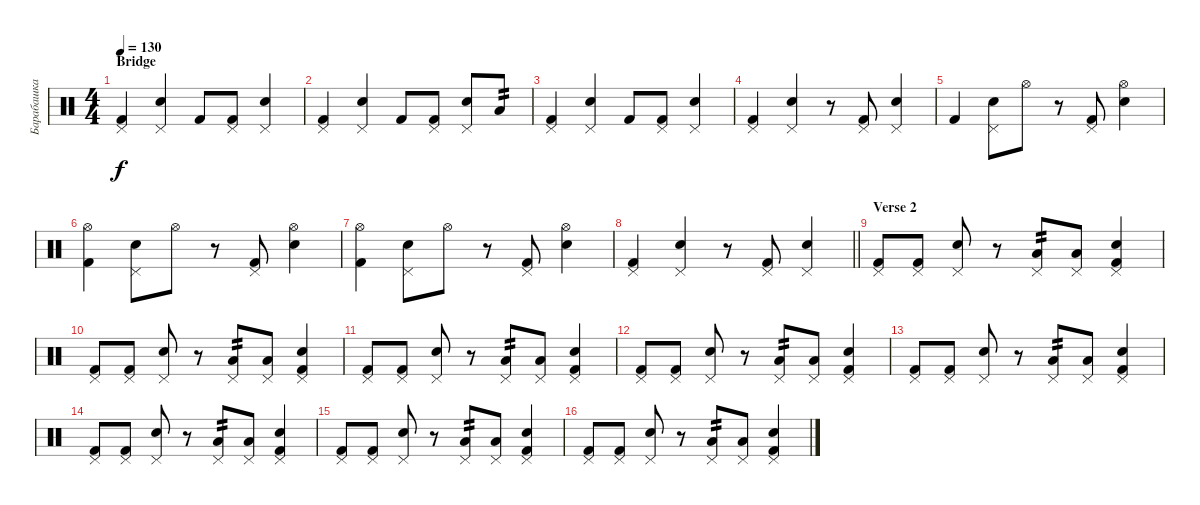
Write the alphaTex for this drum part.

\track ("Барабашка" "Барабашка") {instrument percussion}
\staff {score}
\articulation defaults
\ts (4 4)
\section ("" "Bridge")
\tempo 130
\clef neutral
\ks c
("Pedal Hi-Hat (hit)" "Kick (hit) 2").4{dy f} ("Snare (hit) 2" "Pedal Hi-Hat (hit)").4 "Kick (hit) 2".8 ("Pedal Hi-Hat (hit)" "Kick (hit) 2").8 ("Snare (hit) 2" "Pedal Hi-Hat (hit)").4 |
("Pedal Hi-Hat (hit)" "Kick (hit) 2").4 ("Snare (hit) 2" "Pedal Hi-Hat (hit)").4 "Kick (hit) 2".8 ("Pedal Hi-Hat (hit)" "Kick (hit) 2").8 ("Snare (hit) 2" "Pedal Hi-Hat (hit)").8 "Low Tom (hit)".8{tp 2} |
("Pedal Hi-Hat (hit)" "Kick (hit) 2").4 ("Snare (hit) 2" "Pedal Hi-Hat (hit)").4 "Kick (hit) 2".8 ("Pedal Hi-Hat (hit)" "Kick (hit) 2").8 ("Snare (hit) 2" "Pedal Hi-Hat (hit)").4 |
("Pedal Hi-Hat (hit)" "Kick (hit) 2").4 ("Snare (hit) 2" "Pedal Hi-Hat (hit)").4 r.8 ("Pedal Hi-Hat (hit)" "Kick (hit) 2").8 ("Snare (hit) 2" "Pedal Hi-Hat (hit)").4 |
"Kick (hit) 2".4 ("Snare (hit) 2" "Pedal Hi-Hat (hit)").8 "Hi-Hat (open)".8 r.8 ("Pedal Hi-Hat (hit)" "Kick (hit) 2").8 ("Snare (hit) 2" "Hi-Hat (open)").4 |
("Hi-Hat (open)" "Kick (hit) 2").4 ("Snare (hit) 2" "Pedal Hi-Hat (hit)").8 "Hi-Hat (open)".8 r.8 ("Pedal Hi-Hat (hit)" "Kick (hit) 2").8 ("Snare (hit) 2" "Hi-Hat (open)").4 |
("Hi-Hat (open)" "Kick (hit) 2").4 ("Snare (hit) 2" "Pedal Hi-Hat (hit)").8 "Hi-Hat (open)".8 r.8 ("Pedal Hi-Hat (hit)" "Kick (hit) 2").8 ("Snare (hit) 2" "Hi-Hat (open)").4 |
\barLineRight lightlight
("Pedal Hi-Hat (hit)" "Kick (hit) 2").4 ("Snare (hit) 2" "Pedal Hi-Hat (hit)").4 r.8 ("Pedal Hi-Hat (hit)" "Kick (hit) 2").8 ("Snare (hit) 2" "Pedal Hi-Hat (hit)").4 |
\section ("" "Verse 2")
("Pedal Hi-Hat (hit)" "Kick (hit) 2").8{volume 16} ("Pedal Hi-Hat (hit)" "Kick (hit) 2").8 ("Snare (hit) 2" "Pedal Hi-Hat (hit)").8 r.8 ("Low Tom (hit)" "Pedal Hi-Hat (hit)").8{tp 2} ("Low Tom (hit)" "Pedal Hi-Hat (hit)").8 ("Snare (hit) 2" "Pedal Hi-Hat (hit)" "Kick (hit) 2").4 |
("Pedal Hi-Hat (hit)" "Kick (hit) 2").8 ("Pedal Hi-Hat (hit)" "Kick (hit) 2").8 ("Snare (hit) 2" "Pedal Hi-Hat (hit)").8 r.8 ("Low Tom (hit)" "Pedal Hi-Hat (hit)").8{tp 2} ("Low Tom (hit)" "Pedal Hi-Hat (hit)").8 ("Snare (hit) 2" "Pedal Hi-Hat (hit)" "Kick (hit) 2").4 |
("Pedal Hi-Hat (hit)" "Kick (hit) 2").8 ("Pedal Hi-Hat (hit)" "Kick (hit) 2").8 ("Snare (hit) 2" "Pedal Hi-Hat (hit)").8 r.8 ("Low Tom (hit)" "Pedal Hi-Hat (hit)").8{tp 2} ("Low Tom (hit)" "Pedal Hi-Hat (hit)").8 ("Snare (hit) 2" "Pedal Hi-Hat (hit)" "Kick (hit) 2").4 |
("Pedal Hi-Hat (hit)" "Kick (hit) 2").8 ("Pedal Hi-Hat (hit)" "Kick (hit) 2").8 ("Snare (hit) 2" "Pedal Hi-Hat (hit)").8 r.8 ("Low Tom (hit)" "Pedal Hi-Hat (hit)").8{tp 2} ("Low Tom (hit)" "Pedal Hi-Hat (hit)").8 ("Snare (hit) 2" "Pedal Hi-Hat (hit)" "Kick (hit) 2").4 |
("Pedal Hi-Hat (hit)" "Kick (hit) 2").8 ("Pedal Hi-Hat (hit)" "Kick (hit) 2").8 ("Snare (hit) 2" "Pedal Hi-Hat (hit)").8 r.8 ("Low Tom (hit)" "Pedal Hi-Hat (hit)").8{tp 2} ("Low Tom (hit)" "Pedal Hi-Hat (hit)").8 ("Snare (hit) 2" "Pedal Hi-Hat (hit)" "Kick (hit) 2").4 |
("Pedal Hi-Hat (hit)" "Kick (hit) 2").8 ("Pedal Hi-Hat (hit)" "Kick (hit) 2").8 ("Snare (hit) 2" "Pedal Hi-Hat (hit)").8 r.8 ("Low Tom (hit)" "Pedal Hi-Hat (hit)").8{tp 2} ("Low Tom (hit)" "Pedal Hi-Hat (hit)").8 ("Snare (hit) 2" "Pedal Hi-Hat (hit)" "Kick (hit) 2").4 |
("Pedal Hi-Hat (hit)" "Kick (hit) 2").8 ("Pedal Hi-Hat (hit)" "Kick (hit) 2").8 ("Snare (hit) 2" "Pedal Hi-Hat (hit)").8 r.8 ("Low Tom (hit)" "Pedal Hi-Hat (hit)").8{tp 2} ("Low Tom (hit)" "Pedal Hi-Hat (hit)").8 ("Snare (hit) 2" "Pedal Hi-Hat (hit)" "Kick (hit) 2").4 |
("Pedal Hi-Hat (hit)" "Kick (hit) 2").8 ("Pedal Hi-Hat (hit)" "Kick (hit) 2").8 ("Snare (hit) 2" "Pedal Hi-Hat (hit)").8 r.8 ("Low Tom (hit)" "Pedal Hi-Hat (hit)").8{tp 2} ("Low Tom (hit)" "Pedal Hi-Hat (hit)").8 ("Snare (hit) 2" "Pedal Hi-Hat (hit)" "Kick (hit) 2").4
